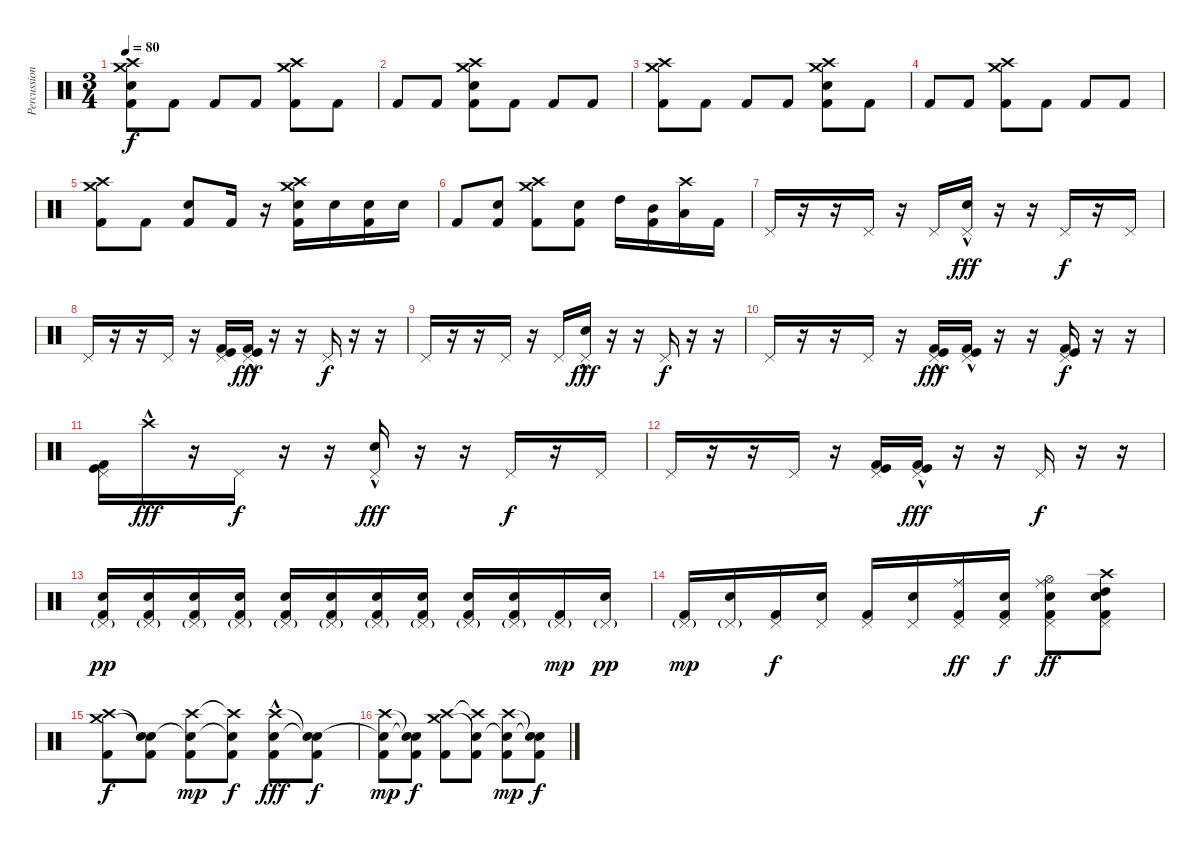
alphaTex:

\track ("Percussion" "Percussion") {instrument percussion}
\staff {score}
\articulation defaults
\ts (3 4)
\tempo 80
\clef neutral
\ks c
("Crash high (hit)" "Crash medium (hit)" "Electric Snare (hit)" "Kick (hit) 2").8{dy f} "Kick (hit) 2".8 "Kick (hit) 2".8 "Kick (hit) 2".8 ("Crash high (hit)" "Crash medium (hit)" "Kick (hit) 2").8 "Kick (hit) 2".8 |
"Kick (hit) 2".8 "Kick (hit) 2".8 ("Crash high (hit)" "Crash medium (hit)" "Electric Snare (hit)" "Kick (hit) 2").8 "Kick (hit) 2".8 "Kick (hit) 2".8 "Kick (hit) 2".8 |
("Crash high (hit)" "Crash medium (hit)" "Kick (hit) 2").8 "Kick (hit) 2".8 "Kick (hit) 2".8 "Kick (hit) 2".8 ("Crash high (hit)" "Crash medium (hit)" "Electric Snare (hit)" "Kick (hit) 2").8 "Kick (hit) 2".8 |
"Kick (hit) 2".8 "Kick (hit) 2".8 ("Crash high (hit)" "Crash medium (hit)" "Kick (hit) 2").8 "Kick (hit) 2".8 "Kick (hit) 2".8 "Kick (hit) 2".8 |
("Crash high (hit)" "Crash medium (hit)" "Kick (hit) 2").8 "Kick (hit) 2".8 ("Electric Snare (hit)" "Kick (hit) 2").8 "Kick (hit) 2".16 r.16 ("Crash high (hit)" "Crash medium (hit)" "Electric Snare (hit)" "Kick (hit) 2").16 "Electric Snare (hit)".16 ("Electric Snare (hit)" "Kick (hit) 2").16 "Electric Snare (hit)".16 |
"Kick (hit) 2".8 ("Electric Snare (hit)" "Kick (hit) 2").8 ("Crash high (hit)" "Crash medium (hit)" "Kick (hit) 2").8 ("Electric Snare (hit)" "Kick (hit) 2").8 "High Tom (hit)".16 ("Mid Tom (hit)" "Kick (hit) 2").16 ("Crash high (hit)" "Low Tom (hit)").16 "Kick (hit) 2".16 |
"Pedal Hi-Hat (hit)".16 r.16 r.16 "Pedal Hi-Hat (hit)".16 r.16 "Pedal Hi-Hat (hit)".16 ("Pedal Hi-Hat (hit)" "Electric Snare (hit)"{hac}).16{dy fff} r.16 r.16 "Pedal Hi-Hat (hit)".16{dy f} r.16 "Pedal Hi-Hat (hit)".16 |
"Pedal Hi-Hat (hit)".16 r.16 r.16 "Pedal Hi-Hat (hit)".16 r.16 ("Pedal Hi-Hat (hit)" "Kick (hit) 2" "Kick (hit)").16 ("Pedal Hi-Hat (hit)" "Kick (hit) 2"{hac} "Kick (hit)"{hac}).16{dy fff} r.16 r.16 "Pedal Hi-Hat (hit)".16{dy f} r.16 r.16 |
"Pedal Hi-Hat (hit)".16 r.16 r.16 "Pedal Hi-Hat (hit)".16 r.16 "Pedal Hi-Hat (hit)".16 ("Pedal Hi-Hat (hit)" "Electric Snare (hit)"{hac}).16{dy fff} r.16 r.16 "Pedal Hi-Hat (hit)".16{dy f} r.16 r.16 |
"Pedal Hi-Hat (hit)".16 r.16 r.16 "Pedal Hi-Hat (hit)".16 r.16 ("Pedal Hi-Hat (hit)" "Kick (hit) 2"{hac} "Kick (hit)"{hac}).16{dy fff} ("Pedal Hi-Hat (hit)" "Kick (hit) 2"{hac} "Kick (hit)"{hac}).16 r.16 r.16 ("Pedal Hi-Hat (hit)" "Kick (hit) 2" "Kick (hit)").16{dy f} r.16 r.16 |
("Pedal Hi-Hat (hit)" "Kick (hit)" "Kick (hit) 2").16 "Crash high (hit)"{hac}.16{dy fff} r.16 "Pedal Hi-Hat (hit)".16{dy f} r.16 r.16 ("Pedal Hi-Hat (hit)" "Electric Snare (hit)"{hac}).16{dy fff} r.16 r.16 "Pedal Hi-Hat (hit)".16{dy f} r.16 "Pedal Hi-Hat (hit)".16 |
"Pedal Hi-Hat (hit)".16 r.16 r.16 "Pedal Hi-Hat (hit)".16 r.16 ("Pedal Hi-Hat (hit)" "Kick (hit) 2" "Kick (hit)").16 ("Pedal Hi-Hat (hit)" "Kick (hit) 2"{hac} "Kick (hit)"{hac}).16{dy fff} r.16 r.16 "Pedal Hi-Hat (hit)".16{dy f} r.16 r.16 |
("Pedal Hi-Hat (hit)"{g} "Electric Snare (hit)" "Kick (hit) 2").16{dy pp} ("Pedal Hi-Hat (hit)"{g} "Electric Snare (hit)" "Kick (hit) 2").16 ("Pedal Hi-Hat (hit)"{g} "Electric Snare (hit)" "Kick (hit) 2").16 ("Pedal Hi-Hat (hit)"{g} "Electric Snare (hit)" "Kick (hit) 2").16 ("Pedal Hi-Hat (hit)"{g} "Electric Snare (hit)" "Kick (hit) 2").16 ("Pedal Hi-Hat (hit)"{g} "Electric Snare (hit)" "Kick (hit) 2").16 ("Pedal Hi-Hat (hit)"{g} "Electric Snare (hit)" "Kick (hit) 2").16 ("Pedal Hi-Hat (hit)"{g} "Electric Snare (hit)" "Kick (hit) 2").16 ("Pedal Hi-Hat (hit)"{g} "Electric Snare (hit)" "Kick (hit) 2").16 ("Pedal Hi-Hat (hit)"{g} "Electric Snare (hit)" "Kick (hit) 2").16 ("Pedal Hi-Hat (hit)"{g} "Kick (hit) 2").16{dy mp} ("Pedal Hi-Hat (hit)"{g} "Electric Snare (hit)").16{dy pp} |
("Pedal Hi-Hat (hit)"{g} "Kick (hit) 2").16{dy mp} ("Pedal Hi-Hat (hit)"{g} "Electric Snare (hit)").16 ("Pedal Hi-Hat (hit)" "Kick (hit) 2").16{dy f} ("Pedal Hi-Hat (hit)" "Electric Snare (hit)").16 ("Pedal Hi-Hat (hit)" "Kick (hit) 2").16 ("Pedal Hi-Hat (hit)" "Electric Snare (hit)").16 ("Pedal Hi-Hat (hit)" "Ride (middle)" "Kick (hit) 2").16{dy ff} ("Pedal Hi-Hat (hit)" "Electric Snare (hit)" "Kick (hit) 2").16{dy f} ("Pedal Hi-Hat (hit)" "Hi-Hat (open)" "Electric Snare (hit)" "Ride (middle)" "Kick (hit) 2").8{dy ff} ("Pedal Hi-Hat (hit)" "High Tom (hit)" "Electric Snare (hit)" "Crash high (hit)" "Kick (hit) 2").8 |
("Crash high (hit)" "Crash medium (hit)" "Kick (hit) 2").8{dy f} ("Snare (hit)"{t} "Snare (hit)"{t} "Kick (hit) 2").8 ("Crash high (hit)" "Snare (hit)"{t} "Kick (hit) 2").8{dy mp} ("Crash high (hit)"{t} "Snare (hit)"{t} "Kick (hit) 2").8{dy f} ("Crash high (hit)" "Electric Snare (hit)"{hac} "Kick (hit) 2").8{dy fff} ("Snare (hit)"{t} "Snare (hit)"{t} "Kick (hit) 2").8{dy f} |
("Crash high (hit)" "Electric Snare (hit)"{t} "Kick (hit) 2").8{dy mp} ("Snare (hit)"{t} "Snare (hit)"{t} "Kick (hit) 2").8{dy f} ("Crash high (hit)" "Crash medium (hit)" "Kick (hit) 2").8 ("Crash high (hit)"{t} "Snare (hit)"{t} "Kick (hit) 2").8 ("Crash high (hit)" "Snare (hit)"{t} "Kick (hit) 2").8{dy mp} ("Snare (hit)"{t} "Snare (hit)"{t} "Kick (hit) 2").8{dy f}
